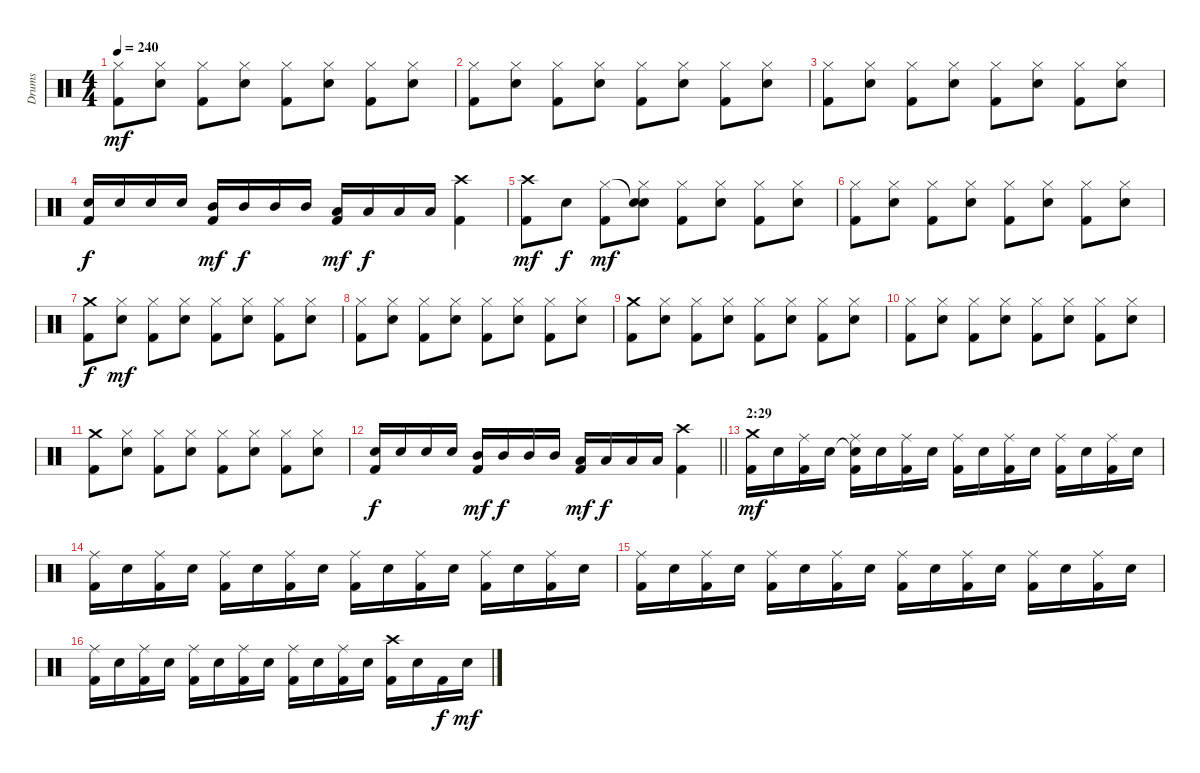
\track ("Drums" "Drums") {instrument percussion}
\staff {score}
\articulation defaults
\ts (4 4)
\tempo 240
\clef neutral
\ks c
("Hi-Hat (closed)" "Kick (hit) 2").8{dy mf} ("Hi-Hat (closed)" "Electric Snare (hit)").8 ("Hi-Hat (closed)" "Kick (hit) 2").8 ("Hi-Hat (closed)" "Electric Snare (hit)").8 ("Hi-Hat (closed)" "Kick (hit) 2").8 ("Hi-Hat (closed)" "Electric Snare (hit)").8 ("Hi-Hat (closed)" "Kick (hit) 2").8 ("Hi-Hat (closed)" "Electric Snare (hit)").8 |
("Hi-Hat (closed)" "Kick (hit) 2").8 ("Hi-Hat (closed)" "Electric Snare (hit)").8 ("Hi-Hat (closed)" "Kick (hit) 2").8 ("Hi-Hat (closed)" "Electric Snare (hit)").8 ("Hi-Hat (closed)" "Kick (hit) 2").8 ("Hi-Hat (closed)" "Electric Snare (hit)").8 ("Hi-Hat (closed)" "Kick (hit) 2").8 ("Hi-Hat (closed)" "Electric Snare (hit)").8 |
("Hi-Hat (closed)" "Kick (hit) 2").8 ("Hi-Hat (closed)" "Electric Snare (hit)").8 ("Hi-Hat (closed)" "Kick (hit) 2").8 ("Hi-Hat (closed)" "Electric Snare (hit)").8 ("Hi-Hat (closed)" "Kick (hit) 2").8 ("Hi-Hat (closed)" "Electric Snare (hit)").8 ("Hi-Hat (closed)" "Kick (hit) 2").8 ("Hi-Hat (closed)" "Electric Snare (hit)").8 |
("Electric Snare (hit)" "Kick (hit) 2").16{dy f} "Electric Snare (hit)".16 "Electric Snare (hit)".16 "Electric Snare (hit)".16 ("Mid Tom (hit)" "Kick (hit) 2").16{dy mf} "Mid Tom (hit)".16{dy f} "Mid Tom (hit)".16 "Mid Tom (hit)".16 ("Low Tom (hit)" "Kick (hit) 2").16{dy mf} "Low Tom (hit)".16{dy f} "Low Tom (hit)".16 "Low Tom (hit)".16 ("Crash high (hit)" "Kick (hit) 2").4 |
("Crash high (hit)" "Kick (hit) 2").8{dy mf} "Electric Snare (hit)".8{dy f} ("Hi-Hat (closed)" "Kick (hit) 2").8{dy mf} ("Snare (hit)"{t} "Hi-Hat (closed)" "Electric Snare (hit)").8 ("Hi-Hat (closed)" "Kick (hit) 2").8 ("Hi-Hat (closed)" "Electric Snare (hit)").8 ("Hi-Hat (closed)" "Kick (hit) 2").8 ("Hi-Hat (closed)" "Electric Snare (hit)").8 |
("Hi-Hat (closed)" "Kick (hit) 2").8 ("Hi-Hat (closed)" "Electric Snare (hit)").8 ("Hi-Hat (closed)" "Kick (hit) 2").8 ("Hi-Hat (closed)" "Electric Snare (hit)").8 ("Hi-Hat (closed)" "Kick (hit) 2").8 ("Hi-Hat (closed)" "Electric Snare (hit)").8 ("Hi-Hat (closed)" "Kick (hit) 2").8 ("Hi-Hat (closed)" "Electric Snare (hit)").8 |
("Crash medium (hit)" "Kick (hit) 2").8{dy f} ("Hi-Hat (closed)" "Electric Snare (hit)").8{dy mf} ("Hi-Hat (closed)" "Kick (hit) 2").8 ("Hi-Hat (closed)" "Electric Snare (hit)").8 ("Hi-Hat (closed)" "Kick (hit) 2").8 ("Hi-Hat (closed)" "Electric Snare (hit)").8 ("Hi-Hat (closed)" "Kick (hit) 2").8 ("Hi-Hat (closed)" "Electric Snare (hit)").8 |
("Hi-Hat (closed)" "Kick (hit) 2").8 ("Hi-Hat (closed)" "Electric Snare (hit)").8 ("Hi-Hat (closed)" "Kick (hit) 2").8 ("Hi-Hat (closed)" "Electric Snare (hit)").8 ("Hi-Hat (closed)" "Kick (hit) 2").8 ("Hi-Hat (closed)" "Electric Snare (hit)").8 ("Hi-Hat (closed)" "Kick (hit) 2").8 ("Hi-Hat (closed)" "Electric Snare (hit)").8 |
("Crash medium (hit)" "Kick (hit) 2").8 ("Hi-Hat (closed)" "Electric Snare (hit)").8 ("Hi-Hat (closed)" "Kick (hit) 2").8 ("Hi-Hat (closed)" "Electric Snare (hit)").8 ("Hi-Hat (closed)" "Kick (hit) 2").8 ("Hi-Hat (closed)" "Electric Snare (hit)").8 ("Hi-Hat (closed)" "Kick (hit) 2").8 ("Hi-Hat (closed)" "Electric Snare (hit)").8 |
("Hi-Hat (closed)" "Kick (hit) 2").8 ("Hi-Hat (closed)" "Electric Snare (hit)").8 ("Hi-Hat (closed)" "Kick (hit) 2").8 ("Hi-Hat (closed)" "Electric Snare (hit)").8 ("Hi-Hat (closed)" "Kick (hit) 2").8 ("Hi-Hat (closed)" "Electric Snare (hit)").8 ("Hi-Hat (closed)" "Kick (hit) 2").8 ("Hi-Hat (closed)" "Electric Snare (hit)").8 |
("Crash medium (hit)" "Kick (hit) 2").8 ("Hi-Hat (closed)" "Electric Snare (hit)").8 ("Hi-Hat (closed)" "Kick (hit) 2").8 ("Hi-Hat (closed)" "Electric Snare (hit)").8 ("Hi-Hat (closed)" "Kick (hit) 2").8 ("Hi-Hat (closed)" "Electric Snare (hit)").8 ("Hi-Hat (closed)" "Kick (hit) 2").8 ("Hi-Hat (closed)" "Electric Snare (hit)").8 |
\barLineRight lightlight
("Electric Snare (hit)" "Kick (hit) 2").16{dy f} "Electric Snare (hit)".16 "Electric Snare (hit)".16 "Electric Snare (hit)".16 ("Mid Tom (hit)" "Kick (hit) 2").16{dy mf} "Mid Tom (hit)".16{dy f} "Mid Tom (hit)".16 "Mid Tom (hit)".16 ("Low Tom (hit)" "Kick (hit) 2").16{dy mf} "Low Tom (hit)".16{dy f} "Low Tom (hit)".16 "Low Tom (hit)".16 ("Crash high (hit)" "Kick (hit) 2").4 |
\section ("" "2:29")
("Crash medium (hit)" "Kick (hit) 2").16{dy mf} "Electric Snare (hit)".16 ("Ride (middle)" "Kick (hit) 2").16 "Electric Snare (hit)".16 ("Snare (hit)"{t} "Ride (middle)" "Kick (hit) 2").16 "Electric Snare (hit)".16 ("Ride (middle)" "Kick (hit) 2").16 "Electric Snare (hit)".16 ("Ride (middle)" "Kick (hit) 2").16 "Electric Snare (hit)".16 ("Ride (middle)" "Kick (hit) 2").16 "Electric Snare (hit)".16 ("Ride (middle)" "Kick (hit) 2").16 "Electric Snare (hit)".16 ("Ride (middle)" "Kick (hit) 2").16 "Electric Snare (hit)".16 |
("Ride (middle)" "Kick (hit) 2").16 "Electric Snare (hit)".16 ("Ride (middle)" "Kick (hit) 2").16 "Electric Snare (hit)".16 ("Ride (middle)" "Kick (hit) 2").16 "Electric Snare (hit)".16 ("Ride (middle)" "Kick (hit) 2").16 "Electric Snare (hit)".16 ("Ride (middle)" "Kick (hit) 2").16 "Electric Snare (hit)".16 ("Ride (middle)" "Kick (hit) 2").16 "Electric Snare (hit)".16 ("Ride (middle)" "Kick (hit) 2").16 "Electric Snare (hit)".16 ("Ride (middle)" "Kick (hit) 2").16 "Electric Snare (hit)".16 |
("Ride (middle)" "Kick (hit) 2").16 "Electric Snare (hit)".16 ("Ride (middle)" "Kick (hit) 2").16 "Electric Snare (hit)".16 ("Ride (middle)" "Kick (hit) 2").16 "Electric Snare (hit)".16 ("Ride (middle)" "Kick (hit) 2").16 "Electric Snare (hit)".16 ("Ride (middle)" "Kick (hit) 2").16 "Electric Snare (hit)".16 ("Ride (middle)" "Kick (hit) 2").16 "Electric Snare (hit)".16 ("Ride (middle)" "Kick (hit) 2").16 "Electric Snare (hit)".16 ("Ride (middle)" "Kick (hit) 2").16 "Electric Snare (hit)".16 |
("Ride (middle)" "Kick (hit) 2").16 "Electric Snare (hit)".16 ("Ride (middle)" "Kick (hit) 2").16 "Electric Snare (hit)".16 ("Ride (middle)" "Kick (hit) 2").16 "Electric Snare (hit)".16 ("Ride (middle)" "Kick (hit) 2").16 "Electric Snare (hit)".16 ("Ride (middle)" "Kick (hit) 2").16 "Electric Snare (hit)".16 ("Ride (middle)" "Kick (hit) 2").16 "Electric Snare (hit)".16 ("Crash high (hit)" "Kick (hit) 2").16 "Electric Snare (hit)".16 "Kick (hit) 2".16{dy f} "Electric Snare (hit)".16{dy mf}
